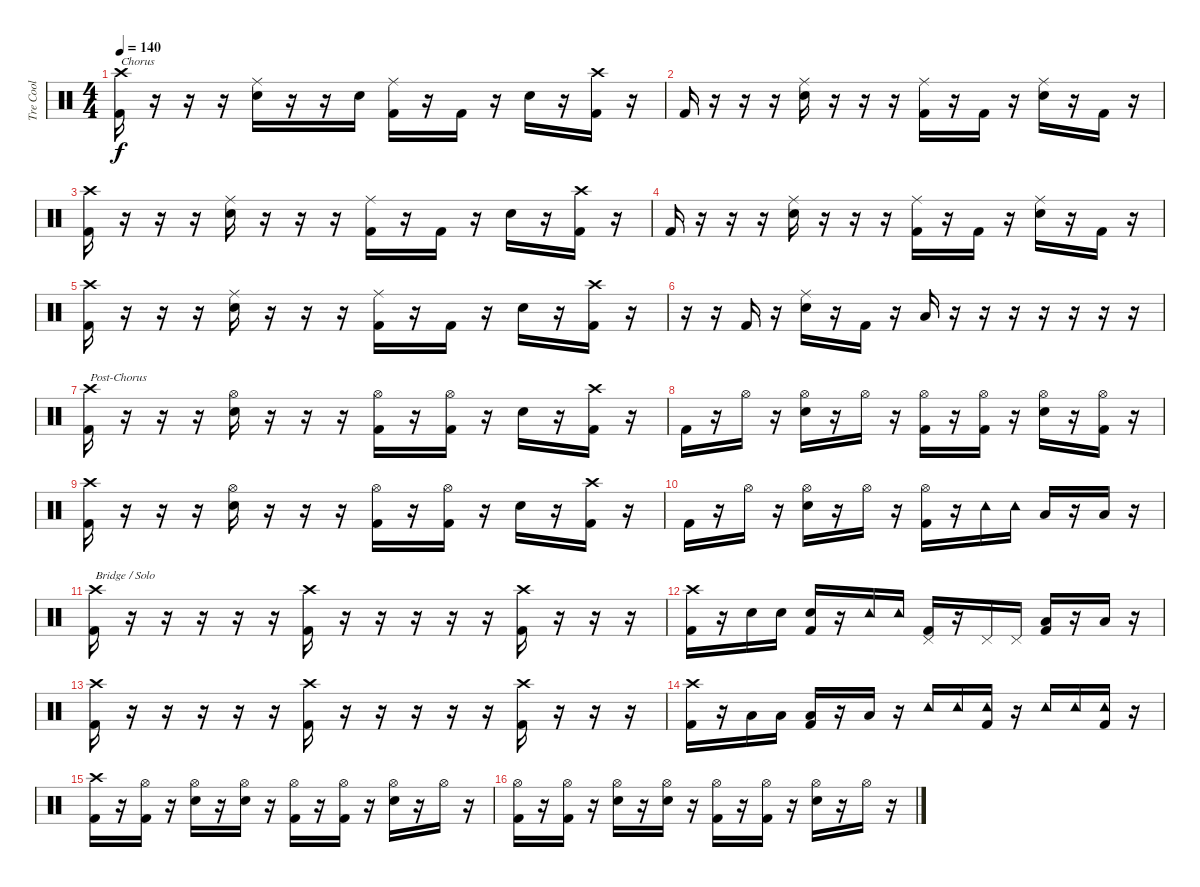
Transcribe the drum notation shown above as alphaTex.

\track ("Tre Cool" "Tre Cool") {instrument percussion}
\staff {score}
\articulation defaults
\ts (4 4)
\tempo 140
\clef neutral
\ks c
("Crash high (hit)" "Kick (hit) 2").16{txt "Chorus" dy f} r.16 r.16 r.16 ("Ride (middle)" "Snare (hit) 2").16 r.16 r.16 "Snare (hit) 2".16 ("Ride (middle)" "Kick (hit) 2").16 r.16 "Kick (hit) 2".16 r.16 "Snare (hit) 2".16 r.16 ("Crash high (hit)" "Kick (hit) 2").16 r.16 |
"Kick (hit) 2".16 r.16 r.16 r.16 ("Ride (middle)" "Snare (hit) 2").16 r.16 r.16 r.16 ("Ride (middle)" "Kick (hit) 2").16 r.16 "Kick (hit) 2".16 r.16 ("Ride (middle)" "Snare (hit) 2").16 r.16 "Kick (hit) 2".16 r.16 |
("Crash high (hit)" "Kick (hit) 2").16 r.16 r.16 r.16 ("Ride (middle)" "Snare (hit) 2").16 r.16 r.16 r.16 ("Ride (middle)" "Kick (hit) 2").16 r.16 "Kick (hit) 2".16 r.16 "Snare (hit) 2".16 r.16 ("Crash high (hit)" "Kick (hit) 2").16 r.16 |
"Kick (hit) 2".16 r.16 r.16 r.16 ("Ride (middle)" "Snare (hit) 2").16 r.16 r.16 r.16 ("Ride (middle)" "Kick (hit) 2").16 r.16 "Kick (hit) 2".16 r.16 ("Ride (middle)" "Snare (hit) 2").16 r.16 "Kick (hit) 2".16 r.16 |
("Crash high (hit)" "Kick (hit) 2").16 r.16 r.16 r.16 ("Ride (middle)" "Snare (hit) 2").16 r.16 r.16 r.16 ("Ride (middle)" "Kick (hit) 2").16 r.16 "Kick (hit) 2".16 r.16 "Snare (hit) 2".16 r.16 ("Crash high (hit)" "Kick (hit) 2").16 r.16 |
r.16 r.16 "Kick (hit) 2".16 r.16 ("Ride (middle)" "Snare (hit) 2").16 r.16 "Kick (hit) 2".16 r.16 "Low Floor Tom (hit)".16 r.16 r.16 r.16 r.16 r.16 r.16 r.16 |
("Crash high (hit)" "Kick (hit) 2").16{txt "Post-Chorus"} r.16 r.16 r.16 ("Hi-Hat (open)" "Snare (hit) 2").16 r.16 r.16 r.16 ("Hi-Hat (open)" "Kick (hit) 2").16 r.16 ("Hi-Hat (open)" "Kick (hit) 2").16 r.16 "Snare (hit) 2".16 r.16 ("Crash high (hit)" "Kick (hit) 2").16 r.16 |
"Kick (hit) 2".16 r.16 "Hi-Hat (open)".16 r.16 ("Hi-Hat (open)" "Snare (hit) 2").16 r.16 "Hi-Hat (open)".16 r.16 ("Hi-Hat (open)" "Kick (hit) 2").16 r.16 ("Hi-Hat (open)" "Kick (hit) 2").16 r.16 ("Hi-Hat (open)" "Snare (hit) 2").16 r.16 ("Hi-Hat (open)" "Kick (hit) 2").16 r.16 |
("Crash high (hit)" "Kick (hit) 2").16 r.16 r.16 r.16 ("Hi-Hat (open)" "Snare (hit) 2").16 r.16 r.16 r.16 ("Hi-Hat (open)" "Kick (hit) 2").16 r.16 ("Hi-Hat (open)" "Kick (hit) 2").16 r.16 "Snare (hit) 2".16 r.16 ("Crash high (hit)" "Kick (hit) 2").16 r.16 |
"Kick (hit) 2".16 r.16 "Hi-Hat (open)".16 r.16 ("Hi-Hat (open)" "Snare (hit) 2").16 r.16 "Hi-Hat (open)".16 r.16 ("Hi-Hat (open)" "Kick (hit) 2").16 r.16 "Tambourine (hit)".16 "Tambourine (hit)".16 "Low Floor Tom (hit)".16 r.16 "Low Floor Tom (hit)".16 r.16 |
("Crash high (hit)" "Kick (hit) 2").16{txt "Bridge / Solo"} r.16 r.16 r.16 r.16 r.16 ("Crash high (hit)" "Kick (hit) 2").16 r.16 r.16 r.16 r.16 r.16 ("Crash high (hit)" "Kick (hit) 2").16 r.16 r.16 r.16 |
("Crash high (hit)" "Kick (hit) 2").16 r.16 "Snare (hit) 2".16 "Snare (hit) 2".16 ("Snare (hit) 2" "Kick (hit) 2").16 r.16 "Tambourine (hit)".16 "Tambourine (hit)".16 ("Pedal Hi-Hat (hit)" "Kick (hit) 2").16 r.16 "Pedal Hi-Hat (hit)".16 "Pedal Hi-Hat (hit)".16 ("Low Floor Tom (hit)" "Kick (hit) 2").16 r.16 "Low Floor Tom (hit)".16 r.16 |
("Crash high (hit)" "Kick (hit) 2").16 r.16 r.16 r.16 r.16 r.16 ("Crash high (hit)" "Kick (hit) 2").16 r.16 r.16 r.16 r.16 r.16 ("Crash high (hit)" "Kick (hit) 2").16 r.16 r.16 r.16 |
("Crash high (hit)" "Kick (hit) 2").16 r.16 "Low Floor Tom (hit)".16 "Low Floor Tom (hit)".16 ("Low Floor Tom (hit)" "Kick (hit) 2").16 r.16 "Low Floor Tom (hit)".16 r.16 "Tambourine (hit)".16 "Tambourine (hit)".16 ("Tambourine (hit)" "Kick (hit) 2").16 r.16 "Tambourine (hit)".16 "Tambourine (hit)".16 ("Tambourine (hit)" "Kick (hit) 2").16 r.16 |
("Crash high (hit)" "Kick (hit) 2").16 r.16 ("Hi-Hat (open)" "Kick (hit) 2").16 r.16 ("Hi-Hat (open)" "Snare (hit) 2").16 r.16 ("Hi-Hat (open)" "Snare (hit) 2").16 r.16 ("Hi-Hat (open)" "Kick (hit) 2").16 r.16 ("Hi-Hat (open)" "Kick (hit) 2").16 r.16 ("Hi-Hat (open)" "Snare (hit) 2").16 r.16 "Hi-Hat (open)".16 r.16 |
("Hi-Hat (open)" "Kick (hit) 2").16 r.16 ("Hi-Hat (open)" "Kick (hit) 2").16 r.16 ("Hi-Hat (open)" "Snare (hit) 2").16 r.16 ("Hi-Hat (open)" "Snare (hit) 2").16 r.16 ("Hi-Hat (open)" "Kick (hit) 2").16 r.16 ("Hi-Hat (open)" "Kick (hit) 2").16 r.16 ("Hi-Hat (open)" "Snare (hit) 2").16 r.16 "Hi-Hat (open)".16 r.16
